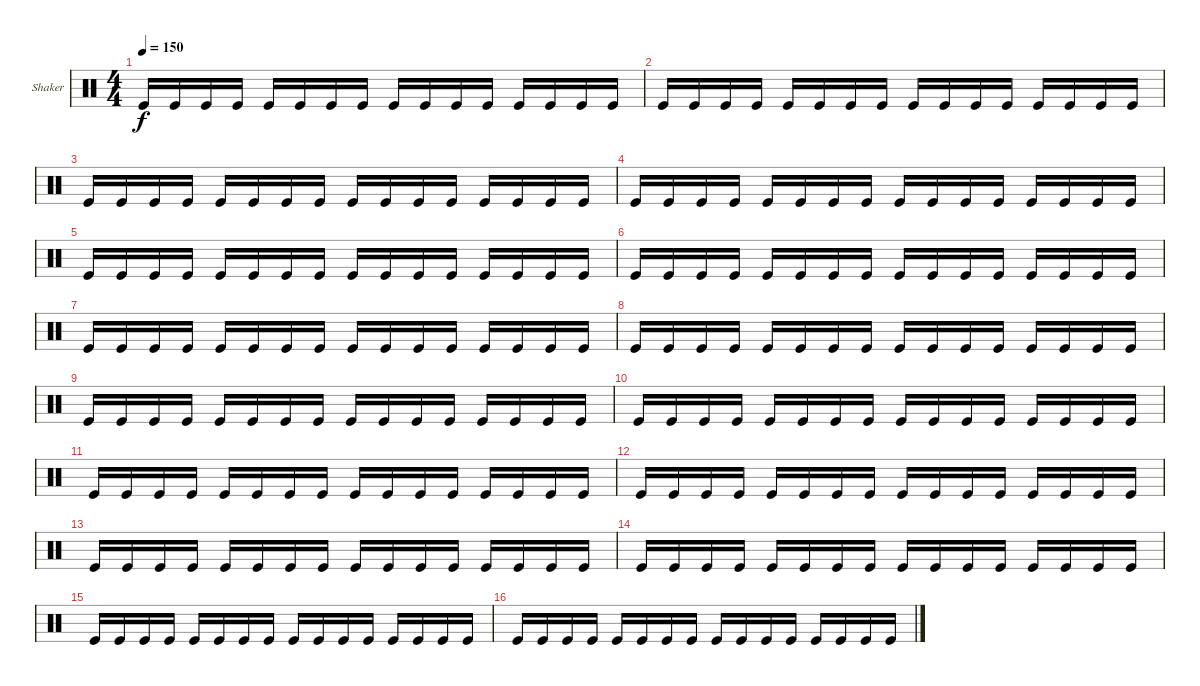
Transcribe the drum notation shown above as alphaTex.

\bracketExtendMode groupsimilarinstruments
\firstSystemTrackNameOrientation horizontal
\otherSystemsTrackNameOrientation horizontal
\track ("Shaker" "Shaker") {instrument percussion}
\staff {score}
\articulation defaults
\ts (4 4)
\tempo 150
\clef neutral
\ks c "Kick (hit)".16{dy f} "Kick (hit)".16 "Kick (hit)".16 "Kick (hit)".16 "Kick (hit)".16 "Kick (hit)".16 "Kick (hit)".16 "Kick (hit)".16 "Kick (hit)".16 "Kick (hit)".16 "Kick (hit)".16 "Kick (hit)".16 "Kick (hit)".16 "Kick (hit)".16 "Kick (hit)".16 "Kick (hit)".16
|
"Kick (hit)".16 "Kick (hit)".16 "Kick (hit)".16 "Kick (hit)".16 "Kick (hit)".16 "Kick (hit)".16 "Kick (hit)".16 "Kick (hit)".16 "Kick (hit)".16 "Kick (hit)".16 "Kick (hit)".16 "Kick (hit)".16 "Kick (hit)".16 "Kick (hit)".16 "Kick (hit)".16 "Kick (hit)".16 |
"Kick (hit)".16 "Kick (hit)".16 "Kick (hit)".16 "Kick (hit)".16 "Kick (hit)".16 "Kick (hit)".16 "Kick (hit)".16 "Kick (hit)".16 "Kick (hit)".16 "Kick (hit)".16 "Kick (hit)".16 "Kick (hit)".16 "Kick (hit)".16 "Kick (hit)".16 "Kick (hit)".16 "Kick (hit)".16 |
"Kick (hit)".16 "Kick (hit)".16 "Kick (hit)".16 "Kick (hit)".16 "Kick (hit)".16 "Kick (hit)".16 "Kick (hit)".16 "Kick (hit)".16 "Kick (hit)".16 "Kick (hit)".16 "Kick (hit)".16 "Kick (hit)".16 "Kick (hit)".16 "Kick (hit)".16 "Kick (hit)".16 "Kick (hit)".16 |
"Kick (hit)".16 "Kick (hit)".16 "Kick (hit)".16 "Kick (hit)".16 "Kick (hit)".16 "Kick (hit)".16 "Kick (hit)".16 "Kick (hit)".16 "Kick (hit)".16 "Kick (hit)".16 "Kick (hit)".16 "Kick (hit)".16 "Kick (hit)".16 "Kick (hit)".16 "Kick (hit)".16 "Kick (hit)".16 |
"Kick (hit)".16 "Kick (hit)".16 "Kick (hit)".16 "Kick (hit)".16 "Kick (hit)".16 "Kick (hit)".16 "Kick (hit)".16 "Kick (hit)".16 "Kick (hit)".16 "Kick (hit)".16 "Kick (hit)".16 "Kick (hit)".16 "Kick (hit)".16 "Kick (hit)".16 "Kick (hit)".16 "Kick (hit)".16 |
"Kick (hit)".16 "Kick (hit)".16 "Kick (hit)".16 "Kick (hit)".16 "Kick (hit)".16 "Kick (hit)".16 "Kick (hit)".16 "Kick (hit)".16 "Kick (hit)".16 "Kick (hit)".16 "Kick (hit)".16 "Kick (hit)".16 "Kick (hit)".16 "Kick (hit)".16 "Kick (hit)".16 "Kick (hit)".16 |
"Kick (hit)".16 "Kick (hit)".16 "Kick (hit)".16 "Kick (hit)".16 "Kick (hit)".16 "Kick (hit)".16 "Kick (hit)".16 "Kick (hit)".16 "Kick (hit)".16 "Kick (hit)".16 "Kick (hit)".16 "Kick (hit)".16 "Kick (hit)".16 "Kick (hit)".16 "Kick (hit)".16 "Kick (hit)".16 |
"Kick (hit)".16 "Kick (hit)".16 "Kick (hit)".16 "Kick (hit)".16 "Kick (hit)".16 "Kick (hit)".16 "Kick (hit)".16 "Kick (hit)".16 "Kick (hit)".16 "Kick (hit)".16 "Kick (hit)".16 "Kick (hit)".16 "Kick (hit)".16 "Kick (hit)".16 "Kick (hit)".16 "Kick (hit)".16 |
"Kick (hit)".16 "Kick (hit)".16 "Kick (hit)".16 "Kick (hit)".16 "Kick (hit)".16 "Kick (hit)".16 "Kick (hit)".16 "Kick (hit)".16 "Kick (hit)".16 "Kick (hit)".16 "Kick (hit)".16 "Kick (hit)".16 "Kick (hit)".16 "Kick (hit)".16 "Kick (hit)".16 "Kick (hit)".16 |
"Kick (hit)".16 "Kick (hit)".16 "Kick (hit)".16 "Kick (hit)".16 "Kick (hit)".16 "Kick (hit)".16 "Kick (hit)".16 "Kick (hit)".16 "Kick (hit)".16 "Kick (hit)".16 "Kick (hit)".16 "Kick (hit)".16 "Kick (hit)".16 "Kick (hit)".16 "Kick (hit)".16 "Kick (hit)".16 |
"Kick (hit)".16 "Kick (hit)".16 "Kick (hit)".16 "Kick (hit)".16 "Kick (hit)".16 "Kick (hit)".16 "Kick (hit)".16 "Kick (hit)".16 "Kick (hit)".16 "Kick (hit)".16 "Kick (hit)".16 "Kick (hit)".16 "Kick (hit)".16 "Kick (hit)".16 "Kick (hit)".16 "Kick (hit)".16 |
"Kick (hit)".16 "Kick (hit)".16 "Kick (hit)".16 "Kick (hit)".16 "Kick (hit)".16 "Kick (hit)".16 "Kick (hit)".16 "Kick (hit)".16 "Kick (hit)".16 "Kick (hit)".16 "Kick (hit)".16 "Kick (hit)".16 "Kick (hit)".16 "Kick (hit)".16 "Kick (hit)".16 "Kick (hit)".16 |
"Kick (hit)".16 "Kick (hit)".16 "Kick (hit)".16 "Kick (hit)".16 "Kick (hit)".16 "Kick (hit)".16 "Kick (hit)".16 "Kick (hit)".16 "Kick (hit)".16 "Kick (hit)".16 "Kick (hit)".16 "Kick (hit)".16 "Kick (hit)".16 "Kick (hit)".16 "Kick (hit)".16 "Kick (hit)".16 |
"Kick (hit)".16 "Kick (hit)".16 "Kick (hit)".16 "Kick (hit)".16 "Kick (hit)".16 "Kick (hit)".16 "Kick (hit)".16 "Kick (hit)".16 "Kick (hit)".16 "Kick (hit)".16 "Kick (hit)".16 "Kick (hit)".16 "Kick (hit)".16 "Kick (hit)".16 "Kick (hit)".16 "Kick (hit)".16 |
"Kick (hit)".16 "Kick (hit)".16 "Kick (hit)".16 "Kick (hit)".16 "Kick (hit)".16 "Kick (hit)".16 "Kick (hit)".16 "Kick (hit)".16 "Kick (hit)".16 "Kick (hit)".16 "Kick (hit)".16 "Kick (hit)".16 "Kick (hit)".16 "Kick (hit)".16 "Kick (hit)".16 "Kick (hit)".16
